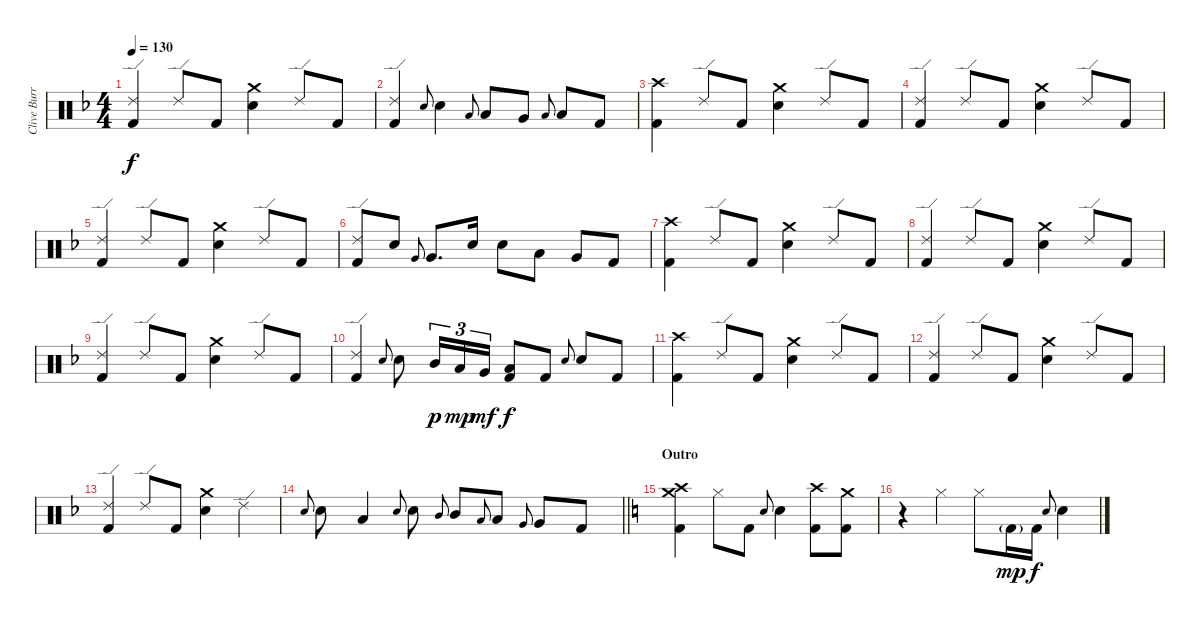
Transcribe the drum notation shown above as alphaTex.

\track ("Clive Burr" "Clive Burr") {instrument percussion}
\staff {score}
\articulation defaults
\ts (4 4)
\tempo 130
\clef neutral
\ks dminor
("Ride (edge) 2" "Kick (hit) 2").4{dy f} "Ride (edge) 2".8 "Kick (hit) 2".8 ("Crash medium (hit)" "Snare (hit) 2").4 "Ride (edge) 2".8 "Kick (hit) 2".8 |
("Ride (edge) 2" "Kick (hit) 2").4 "Snare (hit) 2".8{gr onbeat} "Snare (hit) 2".4 "Low Tom (hit)".8{gr onbeat} "Low Tom (hit)".8 "Very Low Tom (hit)".8 "Low Floor Tom (hit)".8{gr onbeat} "Low Floor Tom (hit)".8 "Kick (hit) 2".8 |
("Crash high (hit)" "Kick (hit) 2").4 "Ride (edge) 2".8 "Kick (hit) 2".8 ("Crash medium (hit)" "Snare (hit) 2").4 "Ride (edge) 2".8 "Kick (hit) 2".8 |
("Ride (edge) 2" "Kick (hit) 2").4 "Ride (edge) 2".8 "Kick (hit) 2".8 ("Crash medium (hit)" "Snare (hit) 2").4 "Ride (edge) 2".8 "Kick (hit) 2".8 |
("Ride (edge) 2" "Kick (hit) 2").4 "Ride (edge) 2".8 "Kick (hit) 2".8 ("Crash medium (hit)" "Snare (hit) 2").4 "Ride (edge) 2".8 "Kick (hit) 2".8 |
("Ride (edge) 2" "Kick (hit) 2").8 "Snare (hit) 2".8 "Very Low Tom (hit)".8{gr onbeat} "Very Low Tom (hit)".8{d} "Snare (hit) 2".16 "Snare (hit) 2".8 "Low Tom (hit)".8 "Very Low Tom (hit)".8 "Kick (hit) 2".8 |
("Crash high (hit)" "Kick (hit) 2").4 "Ride (edge) 2".8 "Kick (hit) 2".8 ("Crash medium (hit)" "Snare (hit) 2").4 "Ride (edge) 2".8 "Kick (hit) 2".8 |
("Ride (edge) 2" "Kick (hit) 2").4 "Ride (edge) 2".8 "Kick (hit) 2".8 ("Crash medium (hit)" "Snare (hit) 2").4 "Ride (edge) 2".8 "Kick (hit) 2".8 |
("Ride (edge) 2" "Kick (hit) 2").4 "Ride (edge) 2".8 "Kick (hit) 2".8 ("Crash medium (hit)" "Snare (hit) 2").4 "Ride (edge) 2".8 "Kick (hit) 2".8 |
("Ride (edge) 2" "Kick (hit) 2").4 "Snare (hit) 2".8{gr onbeat} "Snare (hit) 2".8 "Mid Tom (hit)".16{tu (3 2) dy p} "Low Tom (hit)".16{tu (3 2) dy mp} "Very Low Tom (hit)".16{tu (3 2) dy mf} ("Low Floor Tom (hit)" "Kick (hit) 2").8{dy f} "Kick (hit) 2".8 "Snare (hit) 2".8{gr onbeat} "Snare (hit) 2".8 "Kick (hit) 2".8 |
("Crash high (hit)" "Kick (hit) 2").4 "Ride (edge) 2".8 "Kick (hit) 2".8 ("Crash medium (hit)" "Snare (hit) 2").4 "Ride (edge) 2".8 "Kick (hit) 2".8 |
("Ride (edge) 2" "Kick (hit) 2").4 "Ride (edge) 2".8 "Kick (hit) 2".8 ("Crash medium (hit)" "Snare (hit) 2").4 "Ride (edge) 2".8 "Kick (hit) 2".8 |
("Ride (edge) 2" "Kick (hit) 2").4 "Ride (edge) 2".8 "Kick (hit) 2".8 ("Crash medium (hit)" "Snare (hit) 2").4 "Ride (edge) 2".4 |
\barLineRight lightlight "Snare (hit) 2".8{gr onbeat} "Snare (hit) 2".8 "Low Tom (hit)".4 "Snare (hit) 2".8{gr onbeat} "Snare (hit) 2".8 "Mid Tom (hit)".8{gr onbeat} "Mid Tom (hit)".8 "Low Tom (hit)".8{gr onbeat} "Low Tom (hit)".8 "Very Low Tom (hit)".8{gr onbeat} "Very Low Tom (hit)".8 "Kick (hit) 2".8
|
\section ("" "Outro")
\ks aminor
("Crash high (hit)" "Crash medium (hit)" "Kick (hit) 2").4 "Hi-Hat (closed)".8 "Kick (hit) 2".8 "Snare (hit) 2".8{gr onbeat} "Snare (hit) 2".4 ("Crash high (hit)" "Kick (hit) 2").8 ("Crash medium (hit)" "Kick (hit) 2").8 |
r.4 "Hi-Hat (closed)".4 "Hi-Hat (closed)".8 "Kick (hit) 2"{g}.16{dy mp} "Kick (hit) 2".16{dy f} "Snare (hit) 2".8{gr onbeat} "Snare (hit) 2".4
